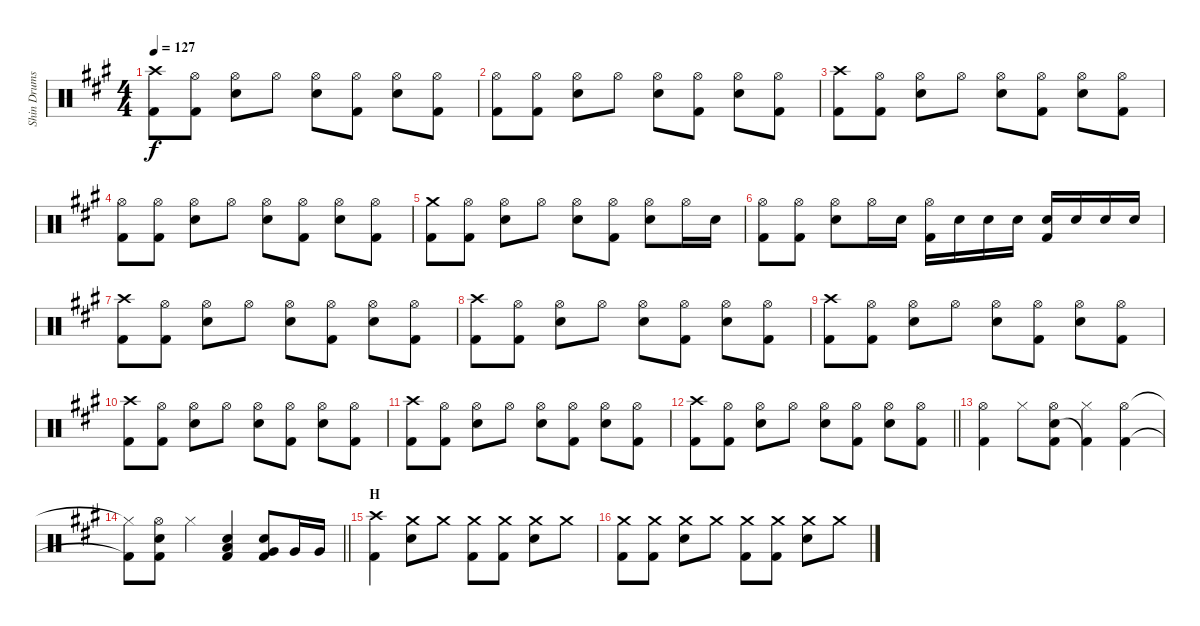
\track ("Shin Drums" "Shin Drums") {instrument percussion}
\staff {score}
\articulation defaults
\ts (4 4)
\tempo 127
\clef neutral
\ks a
("Crash high (hit)" "Kick (hit) 2").8{dy f} ("Hi-Hat (open)" "Kick (hit) 2").8 ("Hi-Hat (open)" "Snare (hit) 2").8 "Hi-Hat (open)".8 ("Hi-Hat (open)" "Snare (hit) 2").8 ("Hi-Hat (open)" "Kick (hit) 2").8 ("Hi-Hat (open)" "Snare (hit) 2").8 ("Hi-Hat (open)" "Kick (hit) 2").8 |
("Hi-Hat (open)" "Kick (hit) 2").8 ("Hi-Hat (open)" "Kick (hit) 2").8 ("Hi-Hat (open)" "Snare (hit) 2").8 "Hi-Hat (open)".8 ("Hi-Hat (open)" "Snare (hit) 2").8 ("Hi-Hat (open)" "Kick (hit) 2").8 ("Hi-Hat (open)" "Snare (hit) 2").8 ("Hi-Hat (open)" "Kick (hit) 2").8 |
("Crash high (hit)" "Kick (hit) 2").8 ("Hi-Hat (open)" "Kick (hit) 2").8 ("Hi-Hat (open)" "Snare (hit) 2").8 "Hi-Hat (open)".8 ("Hi-Hat (open)" "Snare (hit) 2").8 ("Hi-Hat (open)" "Kick (hit) 2").8 ("Hi-Hat (open)" "Snare (hit) 2").8 ("Hi-Hat (open)" "Kick (hit) 2").8 |
("Hi-Hat (open)" "Kick (hit) 2").8 ("Hi-Hat (open)" "Kick (hit) 2").8 ("Hi-Hat (open)" "Snare (hit) 2").8 "Hi-Hat (open)".8 ("Hi-Hat (open)" "Snare (hit) 2").8 ("Hi-Hat (open)" "Kick (hit) 2").8 ("Hi-Hat (open)" "Snare (hit) 2").8 ("Hi-Hat (open)" "Kick (hit) 2").8 |
("Crash medium (hit)" "Kick (hit) 2").8 ("Hi-Hat (open)" "Kick (hit) 2").8 ("Hi-Hat (open)" "Snare (hit) 2").8 "Hi-Hat (open)".8 ("Hi-Hat (open)" "Snare (hit) 2").8 ("Hi-Hat (open)" "Kick (hit) 2").8 ("Hi-Hat (open)" "Snare (hit) 2").8 "Hi-Hat (open)".16 "Snare (hit) 2".16 |
("Hi-Hat (open)" "Kick (hit) 2").8 ("Hi-Hat (open)" "Kick (hit) 2").8 ("Hi-Hat (open)" "Snare (hit) 2").8 "Hi-Hat (open)".16 "Snare (hit) 2".16 ("Hi-Hat (open)" "Kick (hit) 2").16 "Snare (hit) 2".16 "Snare (hit) 2".16 "Snare (hit) 2".16 ("Snare (hit) 2" "Kick (hit) 2").16 "Snare (hit) 2".16 "Snare (hit) 2".16 "Snare (hit) 2".16 |
("Crash high (hit)" "Kick (hit) 2").8 ("Hi-Hat (open)" "Kick (hit) 2").8 ("Hi-Hat (open)" "Snare (hit) 2").8 "Hi-Hat (open)".8 ("Hi-Hat (open)" "Snare (hit) 2").8 ("Hi-Hat (open)" "Kick (hit) 2").8 ("Hi-Hat (open)" "Snare (hit) 2").8 ("Hi-Hat (open)" "Kick (hit) 2").8 |
("Crash high (hit)" "Kick (hit) 2").8 ("Hi-Hat (open)" "Kick (hit) 2").8 ("Hi-Hat (open)" "Snare (hit) 2").8 "Hi-Hat (open)".8 ("Hi-Hat (open)" "Snare (hit) 2").8 ("Hi-Hat (open)" "Kick (hit) 2").8 ("Hi-Hat (open)" "Snare (hit) 2").8 ("Hi-Hat (open)" "Kick (hit) 2").8 |
("Crash high (hit)" "Kick (hit) 2").8 ("Hi-Hat (open)" "Kick (hit) 2").8 ("Hi-Hat (open)" "Snare (hit) 2").8 "Hi-Hat (open)".8 ("Hi-Hat (open)" "Snare (hit) 2").8 ("Hi-Hat (open)" "Kick (hit) 2").8 ("Hi-Hat (open)" "Snare (hit) 2").8 ("Hi-Hat (open)" "Kick (hit) 2").8 |
("Crash high (hit)" "Kick (hit) 2").8 ("Hi-Hat (open)" "Kick (hit) 2").8 ("Hi-Hat (open)" "Snare (hit) 2").8 "Hi-Hat (open)".8 ("Hi-Hat (open)" "Snare (hit) 2").8 ("Hi-Hat (open)" "Kick (hit) 2").8 ("Hi-Hat (open)" "Snare (hit) 2").8 ("Hi-Hat (open)" "Kick (hit) 2").8 |
("Crash high (hit)" "Kick (hit) 2").8 ("Hi-Hat (open)" "Kick (hit) 2").8 ("Hi-Hat (open)" "Snare (hit) 2").8 "Hi-Hat (open)".8 ("Hi-Hat (open)" "Snare (hit) 2").8 ("Hi-Hat (open)" "Kick (hit) 2").8 ("Hi-Hat (open)" "Snare (hit) 2").8 ("Hi-Hat (open)" "Kick (hit) 2").8 |
\barLineRight lightlight
("Crash high (hit)" "Kick (hit) 2").8 ("Hi-Hat (open)" "Kick (hit) 2").8 ("Hi-Hat (open)" "Snare (hit) 2").8 "Hi-Hat (open)".8 ("Hi-Hat (open)" "Snare (hit) 2").8 ("Hi-Hat (open)" "Kick (hit) 2").8 ("Hi-Hat (open)" "Snare (hit) 2").8 ("Hi-Hat (open)" "Kick (hit) 2").8 |
("Hi-Hat (open)" "Kick (hit) 2").4 "Hi-Hat (closed)".8 ("Hi-Hat (open)" "Snare (hit) 2" "Kick (hit) 2").8 ("Hi-Hat (closed)" "Kick (hit) 2"{t}).4 ("Hi-Hat (open)" "Kick (hit) 2").4 |
\barLineRight lightlight
("Hi-Hat (closed)"{t} "Kick (hit) 2"{t}).8 ("Hi-Hat (open)" "Snare (hit) 2" "Kick (hit) 2").8 "Hi-Hat (closed)".4 ("Snare (hit) 2" "Low Tom (hit)" "Kick (hit) 2").4 ("Snare (hit) 2" "Very Low Tom (hit)" "Kick (hit) 2").8 "Very Low Tom (hit)".16 "Very Low Tom (hit)".16 |
\section ("" "H")
("Crash high (hit)" "Kick (hit) 2").4 ("Crash medium (hit)" "Snare (hit) 2").8 "Crash medium (hit)".8 ("Crash medium (hit)" "Kick (hit) 2").8 ("Crash medium (hit)" "Kick (hit) 2").8 ("Crash medium (hit)" "Snare (hit) 2").8 "Crash medium (hit)".8 |
("Crash medium (hit)" "Kick (hit) 2").8 ("Crash medium (hit)" "Kick (hit) 2").8 ("Crash medium (hit)" "Snare (hit) 2").8 "Crash medium (hit)".8 ("Crash medium (hit)" "Kick (hit) 2").8 ("Crash medium (hit)" "Kick (hit) 2").8 ("Crash medium (hit)" "Snare (hit) 2").8 "Crash medium (hit)".8
